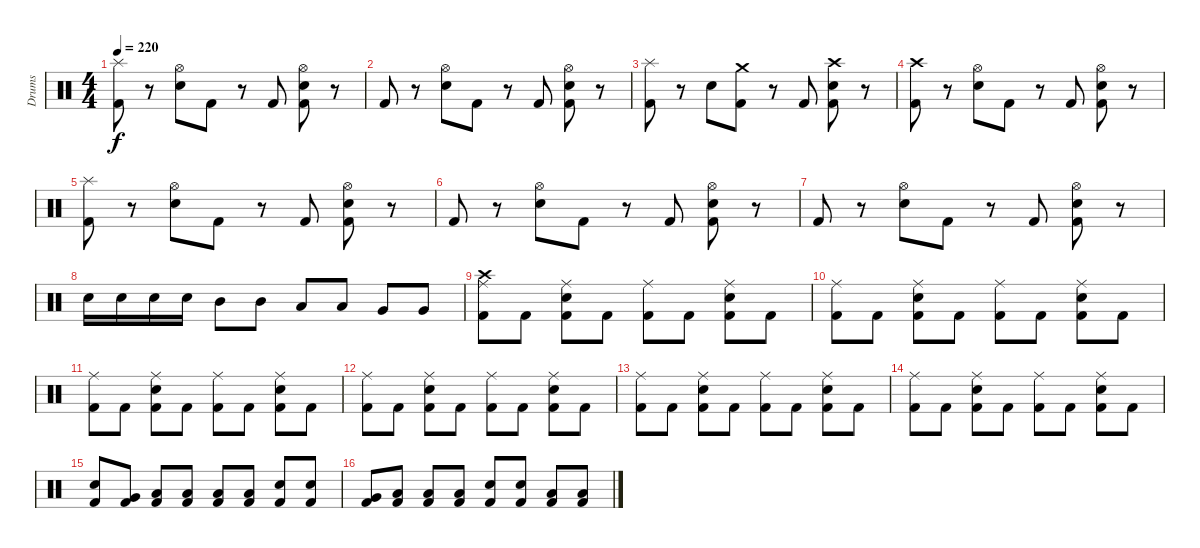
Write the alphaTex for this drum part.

\track ("Drums" "Drums") {instrument percussion}
\staff {score}
\articulation defaults
\ts (4 4)
\tempo 220
\clef neutral
\ks c
("Splash (hit)" "Kick (hit) 2").8{dy f} r.8 ("Electric Snare (hit)" "Hi-Hat (open)").8 "Kick (hit) 2".8 r.8 "Kick (hit) 2".8 ("Electric Snare (hit)" "Hi-Hat (open)" "Kick (hit) 2").8 r.8 |
"Kick (hit) 2".8 r.8 ("Electric Snare (hit)" "Hi-Hat (open)").8 "Kick (hit) 2".8 r.8 "Kick (hit) 2".8 ("Electric Snare (hit)" "Hi-Hat (open)" "Kick (hit) 2").8 r.8 |
("Splash (hit)" "Kick (hit) 2").8 r.8 "Electric Snare (hit)".8 ("Crash medium (hit)" "Kick (hit) 2").8 r.8 "Kick (hit) 2".8 ("Electric Snare (hit)" "Crash high (hit)" "Kick (hit) 2").8 r.8 |
("Crash high (hit)" "Kick (hit) 2").8 r.8 ("Electric Snare (hit)" "Hi-Hat (open)").8 "Kick (hit) 2".8 r.8 "Kick (hit) 2".8 ("Electric Snare (hit)" "Hi-Hat (open)" "Kick (hit) 2").8 r.8 |
("Splash (hit)" "Kick (hit) 2").8 r.8 ("Electric Snare (hit)" "Hi-Hat (open)").8 "Kick (hit) 2".8 r.8 "Kick (hit) 2".8 ("Electric Snare (hit)" "Hi-Hat (open)" "Kick (hit) 2").8 r.8 |
"Kick (hit) 2".8 r.8 ("Electric Snare (hit)" "Hi-Hat (open)").8 "Kick (hit) 2".8 r.8 "Kick (hit) 2".8 ("Electric Snare (hit)" "Hi-Hat (open)" "Kick (hit) 2").8 r.8 |
"Kick (hit) 2".8 r.8 ("Electric Snare (hit)" "Hi-Hat (open)").8 "Kick (hit) 2".8 r.8 "Kick (hit) 2".8 ("Electric Snare (hit)" "Hi-Hat (open)" "Kick (hit) 2").8 r.8 |
"Electric Snare (hit)".16 "Electric Snare (hit)".16 "Electric Snare (hit)".16 "Electric Snare (hit)".16 "Mid Tom (hit)".8 "Mid Tom (hit)".8 "Low Tom (hit)".8 "Low Tom (hit)".8 "Very Low Tom (hit)".8 "Very Low Tom (hit)".8 |
("Crash high (hit)" "Ride (middle)" "Kick (hit) 2").8 "Kick (hit) 2".8 ("Electric Snare (hit)" "Ride (middle)" "Kick (hit) 2").8 "Kick (hit) 2".8 ("Ride (middle)" "Kick (hit) 2").8 "Kick (hit) 2".8 ("Electric Snare (hit)" "Ride (middle)" "Kick (hit) 2").8 "Kick (hit) 2".8 |
("Ride (middle)" "Kick (hit) 2").8 "Kick (hit) 2".8 ("Electric Snare (hit)" "Ride (middle)" "Kick (hit) 2").8 "Kick (hit) 2".8 ("Ride (middle)" "Kick (hit) 2").8 "Kick (hit) 2".8 ("Electric Snare (hit)" "Ride (middle)" "Kick (hit) 2").8 "Kick (hit) 2".8 |
("Ride (middle)" "Kick (hit) 2").8 "Kick (hit) 2".8 ("Electric Snare (hit)" "Ride (middle)" "Kick (hit) 2").8 "Kick (hit) 2".8 ("Ride (middle)" "Kick (hit) 2").8 "Kick (hit) 2".8 ("Electric Snare (hit)" "Ride (middle)" "Kick (hit) 2").8 "Kick (hit) 2".8 |
("Ride (middle)" "Kick (hit) 2").8 "Kick (hit) 2".8 ("Electric Snare (hit)" "Ride (middle)" "Kick (hit) 2").8 "Kick (hit) 2".8 ("Ride (middle)" "Kick (hit) 2").8 "Kick (hit) 2".8 ("Electric Snare (hit)" "Ride (middle)" "Kick (hit) 2").8 "Kick (hit) 2".8 |
("Ride (middle)" "Kick (hit) 2").8 "Kick (hit) 2".8 ("Electric Snare (hit)" "Ride (middle)" "Kick (hit) 2").8 "Kick (hit) 2".8 ("Ride (middle)" "Kick (hit) 2").8 "Kick (hit) 2".8 ("Electric Snare (hit)" "Ride (middle)" "Kick (hit) 2").8 "Kick (hit) 2".8 |
("Ride (middle)" "Kick (hit) 2").8 "Kick (hit) 2".8 ("Electric Snare (hit)" "Ride (middle)" "Kick (hit) 2").8 "Kick (hit) 2".8 ("Ride (middle)" "Kick (hit) 2").8 "Kick (hit) 2".8 ("Electric Snare (hit)" "Ride (middle)" "Kick (hit) 2").8 "Kick (hit) 2".8 |
("Electric Snare (hit)" "Kick (hit) 2").8 ("Very Low Tom (hit)" "Kick (hit) 2").8 ("Low Floor Tom (hit)" "Kick (hit) 2").8 ("Low Floor Tom (hit)" "Kick (hit) 2").8 ("Low Floor Tom (hit)" "Kick (hit) 2").8 ("Low Floor Tom (hit)" "Kick (hit) 2").8 ("Electric Snare (hit)" "Kick (hit) 2").8 ("Electric Snare (hit)" "Kick (hit) 2").8 |
("Very Low Tom (hit)" "Kick (hit) 2").8 ("Low Floor Tom (hit)" "Kick (hit) 2").8 ("Low Floor Tom (hit)" "Kick (hit) 2").8 ("Low Floor Tom (hit)" "Kick (hit) 2").8 ("Electric Snare (hit)" "Kick (hit) 2").8 ("Electric Snare (hit)" "Kick (hit) 2").8 ("Low Floor Tom (hit)" "Kick (hit) 2").8 ("Low Floor Tom (hit)" "Kick (hit) 2").8
